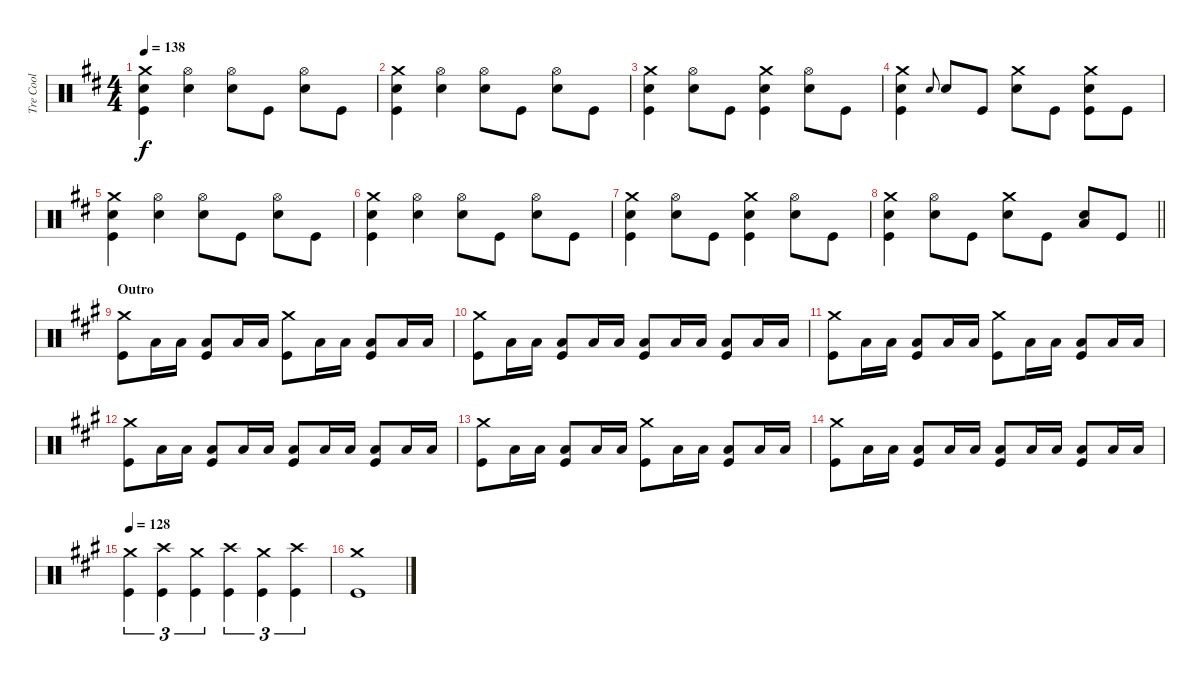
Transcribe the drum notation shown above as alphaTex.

\track ("Tre Cool" "Tre Cool") {instrument percussion}
\staff {score}
\articulation defaults
\ts (4 4)
\tempo 138
\clef neutral
\ks d
("Crash medium (hit)" "Electric Snare (hit)" "Kick (hit)").4{dy f} ("Hi-Hat (open)" "Electric Snare (hit)").4 ("Hi-Hat (open)" "Electric Snare (hit)").8 "Kick (hit)".8 ("Hi-Hat (open)" "Electric Snare (hit)").8 "Kick (hit)".8 |
("Crash medium (hit)" "Electric Snare (hit)" "Kick (hit)").4 ("Hi-Hat (open)" "Electric Snare (hit)").4 ("Hi-Hat (open)" "Electric Snare (hit)").8 "Kick (hit)".8 ("Hi-Hat (open)" "Electric Snare (hit)").8 "Kick (hit)".8 |
("Crash medium (hit)" "Electric Snare (hit)" "Kick (hit)").4 ("Hi-Hat (open)" "Electric Snare (hit)").8 "Kick (hit)".8 ("Crash medium (hit)" "Electric Snare (hit)" "Kick (hit)").4 ("Hi-Hat (open)" "Electric Snare (hit)").8 "Kick (hit)".8 |
("Crash medium (hit)" "Electric Snare (hit)" "Kick (hit)").4 "Electric Snare (hit)".8{gr onbeat} "Electric Snare (hit)".8 "Kick (hit)".8 ("Crash medium (hit)" "Electric Snare (hit)").8 "Kick (hit)".8 ("Crash medium (hit)" "Electric Snare (hit)" "Kick (hit)").8 "Kick (hit)".8 |
("Crash medium (hit)" "Electric Snare (hit)" "Kick (hit)").4 ("Hi-Hat (open)" "Electric Snare (hit)").4 ("Hi-Hat (open)" "Electric Snare (hit)").8 "Kick (hit)".8 ("Hi-Hat (open)" "Electric Snare (hit)").8 "Kick (hit)".8 |
("Crash medium (hit)" "Electric Snare (hit)" "Kick (hit)").4 ("Hi-Hat (open)" "Electric Snare (hit)").4 ("Hi-Hat (open)" "Electric Snare (hit)").8 "Kick (hit)".8 ("Hi-Hat (open)" "Electric Snare (hit)").8 "Kick (hit)".8 |
("Crash medium (hit)" "Electric Snare (hit)" "Kick (hit)").4 ("Hi-Hat (open)" "Electric Snare (hit)").8 "Kick (hit)".8 ("Crash medium (hit)" "Electric Snare (hit)" "Kick (hit)").4 ("Hi-Hat (open)" "Electric Snare (hit)").8 "Kick (hit)".8 |
\barLineRight lightlight
("Crash medium (hit)" "Electric Snare (hit)" "Kick (hit)").4 ("Hi-Hat (open)" "Electric Snare (hit)").8 "Kick (hit)".8 ("Crash medium (hit)" "Electric Snare (hit)").8 "Kick (hit)".8 ("Low Floor Tom (hit)" "Electric Snare (hit)").8 "Kick (hit)".8 |
\section ("" "Outro")
\ks a
("Crash medium (hit)" "Kick (hit)").8 "Low Floor Tom (hit)".16 "Low Floor Tom (hit)".16 ("Low Floor Tom (hit)" "Kick (hit)").8 "Low Floor Tom (hit)".16 "Low Floor Tom (hit)".16 ("Crash medium (hit)" "Kick (hit)").8 "Low Floor Tom (hit)".16 "Low Floor Tom (hit)".16 ("Low Floor Tom (hit)" "Kick (hit)").8 "Low Floor Tom (hit)".16 "Low Floor Tom (hit)".16 |
("Crash medium (hit)" "Kick (hit)").8 "Low Floor Tom (hit)".16 "Low Floor Tom (hit)".16 ("Low Floor Tom (hit)" "Kick (hit)").8 "Low Floor Tom (hit)".16 "Low Floor Tom (hit)".16 ("Low Floor Tom (hit)" "Kick (hit)").8 "Low Floor Tom (hit)".16 "Low Floor Tom (hit)".16 ("Low Floor Tom (hit)" "Kick (hit)").8 "Low Floor Tom (hit)".16 "Low Floor Tom (hit)".16 |
("Crash medium (hit)" "Kick (hit)").8 "Low Floor Tom (hit)".16 "Low Floor Tom (hit)".16 ("Low Floor Tom (hit)" "Kick (hit)").8 "Low Floor Tom (hit)".16 "Low Floor Tom (hit)".16 ("Crash medium (hit)" "Kick (hit)").8 "Low Floor Tom (hit)".16 "Low Floor Tom (hit)".16 ("Low Floor Tom (hit)" "Kick (hit)").8 "Low Floor Tom (hit)".16 "Low Floor Tom (hit)".16 |
("Crash medium (hit)" "Kick (hit)").8 "Low Floor Tom (hit)".16 "Low Floor Tom (hit)".16 ("Low Floor Tom (hit)" "Kick (hit)").8 "Low Floor Tom (hit)".16 "Low Floor Tom (hit)".16 ("Low Floor Tom (hit)" "Kick (hit)").8 "Low Floor Tom (hit)".16 "Low Floor Tom (hit)".16 ("Low Floor Tom (hit)" "Kick (hit)").8 "Low Floor Tom (hit)".16 "Low Floor Tom (hit)".16 |
("Crash medium (hit)" "Kick (hit)").8 "Low Floor Tom (hit)".16 "Low Floor Tom (hit)".16 ("Low Floor Tom (hit)" "Kick (hit)").8 "Low Floor Tom (hit)".16 "Low Floor Tom (hit)".16 ("Crash medium (hit)" "Kick (hit)").8 "Low Floor Tom (hit)".16 "Low Floor Tom (hit)".16 ("Low Floor Tom (hit)" "Kick (hit)").8 "Low Floor Tom (hit)".16 "Low Floor Tom (hit)".16 |
("Crash medium (hit)" "Kick (hit)").8 "Low Floor Tom (hit)".16 "Low Floor Tom (hit)".16 ("Low Floor Tom (hit)" "Kick (hit)").8 "Low Floor Tom (hit)".16 "Low Floor Tom (hit)".16 ("Low Floor Tom (hit)" "Kick (hit)").8 "Low Floor Tom (hit)".16 "Low Floor Tom (hit)".16 ("Low Floor Tom (hit)" "Kick (hit)").8 "Low Floor Tom (hit)".16 "Low Floor Tom (hit)".16 |
\tempo 128
("Crash medium (hit)" "Kick (hit)").4{tu (3 2) volume 13} ("Crash high (hit)" "Kick (hit)").4{tu (3 2)} ("Crash medium (hit)" "Kick (hit)").4{tu (3 2)} ("Crash high (hit)" "Kick (hit)").4{tu (3 2)} ("Crash medium (hit)" "Kick (hit)").4{tu (3 2)} ("Crash high (hit)" "Kick (hit)").4{tu (3 2)} |
("Crash medium (hit)" "Kick (hit)").1
